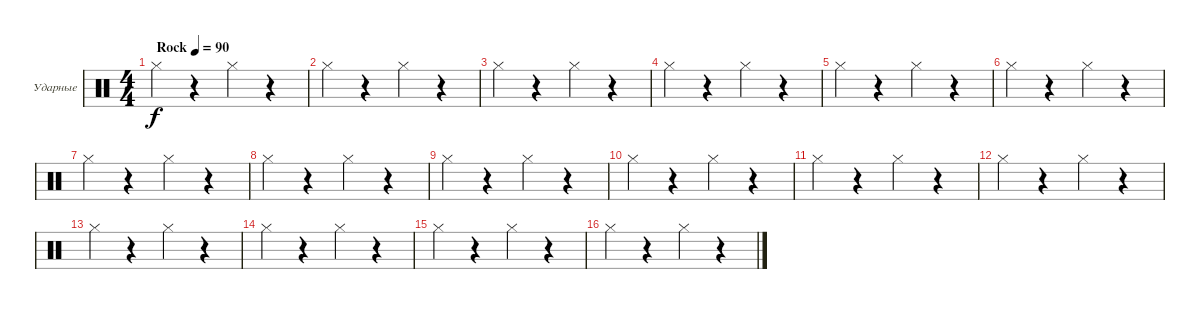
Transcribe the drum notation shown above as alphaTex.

\defaultSystemsLayout 4
\bracketExtendMode groupsimilarinstruments
\firstSystemTrackNameOrientation horizontal
\otherSystemsTrackNameOrientation horizontal
\track ("Drums" "Ударные") {instrument percussion}
\staff {score}
\articulation defaults
\ts (4 4)
\tempo (90 "Rock")
\clef neutral
\ks c "Hi-Hat (closed)".4{dy f}
r.4 "Hi-Hat (closed)".4 r.4 |
"Hi-Hat (closed)".4 r.4 "Hi-Hat (closed)".4 r.4 |
"Hi-Hat (closed)".4 r.4 "Hi-Hat (closed)".4 r.4 |
"Hi-Hat (closed)".4 r.4 "Hi-Hat (closed)".4 r.4 |
"Hi-Hat (closed)".4 r.4 "Hi-Hat (closed)".4 r.4 |
"Hi-Hat (closed)".4 r.4 "Hi-Hat (closed)".4 r.4 |
"Hi-Hat (closed)".4 r.4 "Hi-Hat (closed)".4 r.4 |
"Hi-Hat (closed)".4 r.4 "Hi-Hat (closed)".4 r.4 |
"Hi-Hat (closed)".4 r.4 "Hi-Hat (closed)".4 r.4 |
"Hi-Hat (closed)".4 r.4 "Hi-Hat (closed)".4 r.4 |
"Hi-Hat (closed)".4 r.4 "Hi-Hat (closed)".4 r.4 |
"Hi-Hat (closed)".4 r.4 "Hi-Hat (closed)".4 r.4 |
"Hi-Hat (closed)".4 r.4 "Hi-Hat (closed)".4 r.4 |
"Hi-Hat (closed)".4 r.4 "Hi-Hat (closed)".4 r.4 |
"Hi-Hat (closed)".4 r.4 "Hi-Hat (closed)".4 r.4 |
"Hi-Hat (closed)".4 r.4 "Hi-Hat (closed)".4 r.4
